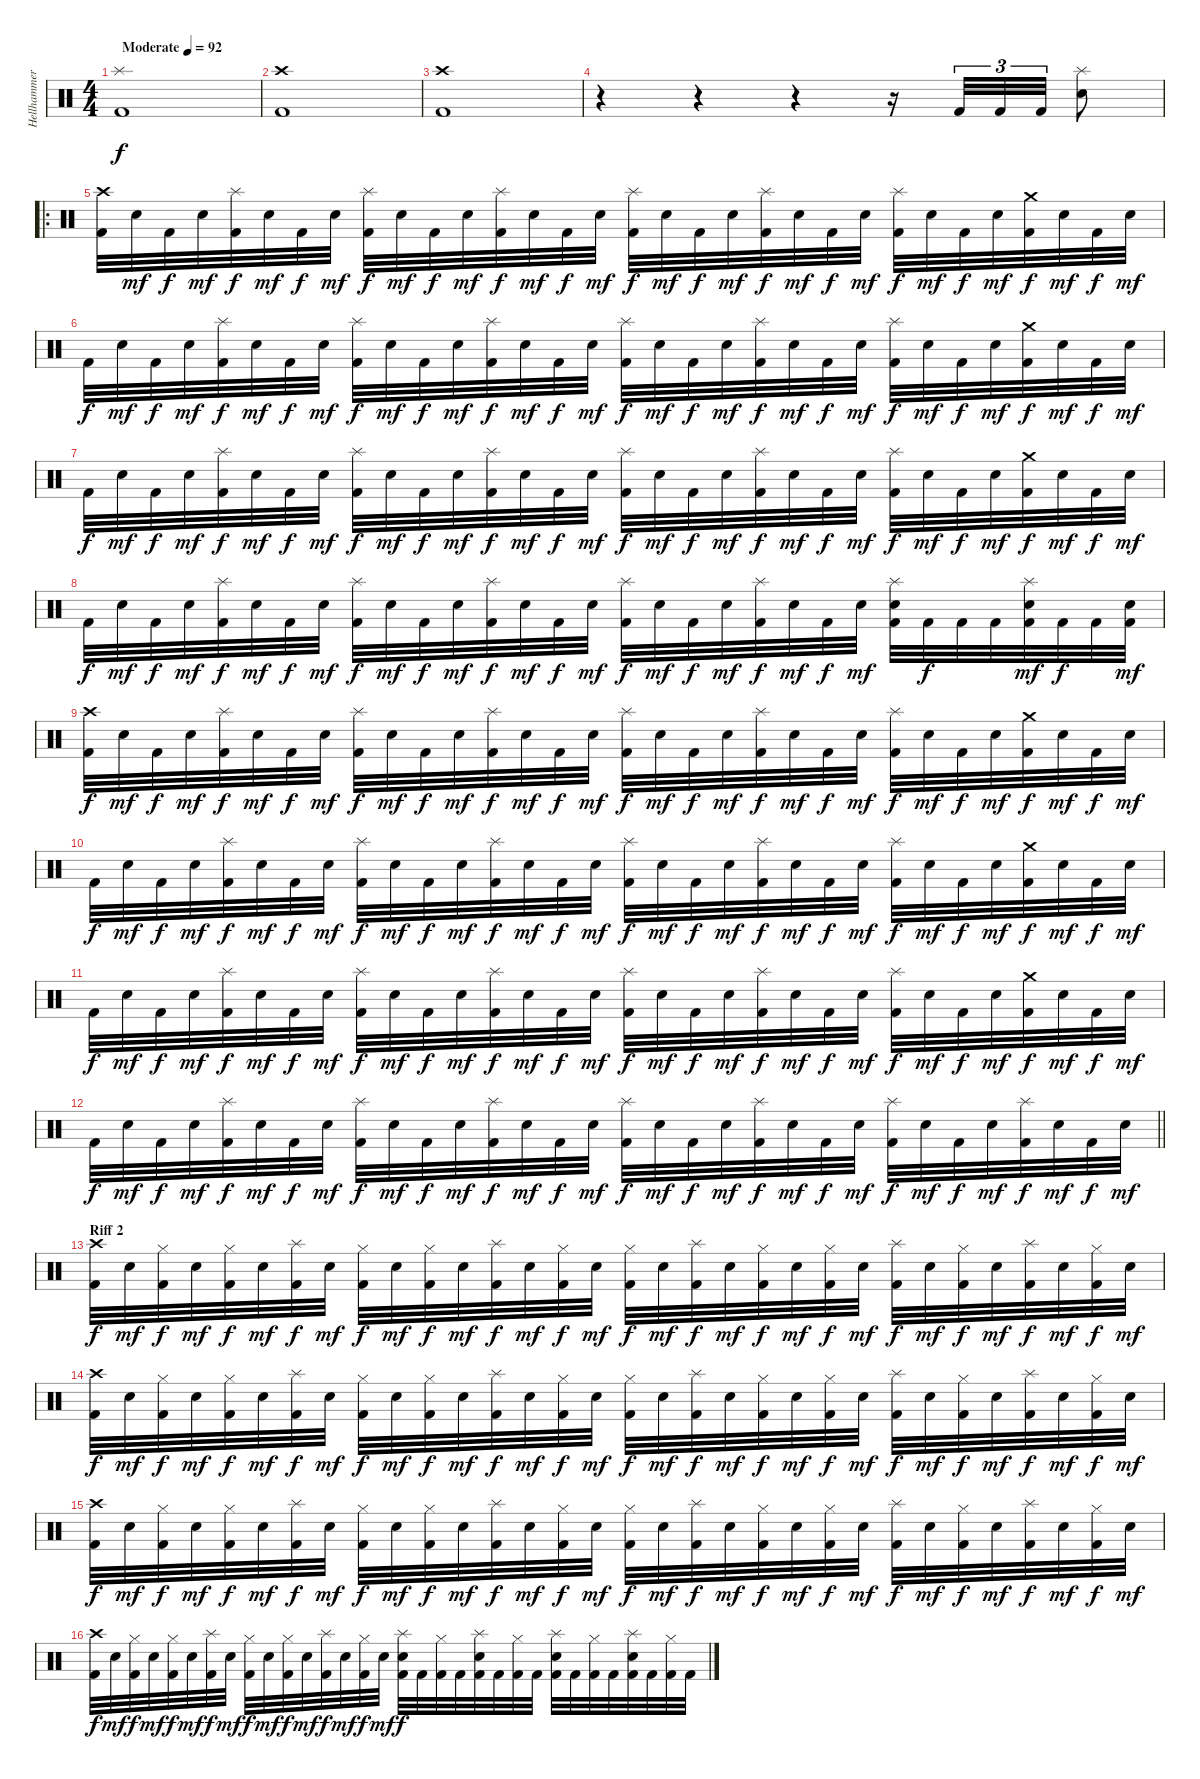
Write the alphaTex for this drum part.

\track ("Hellhammer" "Hellhammer") {instrument percussion}
\staff {score}
\articulation defaults
\ts (4 4)
\tempo (92 "Moderate")
\clef neutral
\ks c
("Splash (hit)" "Kick (hit) 2").1{dy f} |
("Crash high (hit)" "Kick (hit) 2").1 |
("Crash high (hit)" "Kick (hit) 2").1 |
r.4 r.4 r.4 r.16 "Kick (hit) 2".32{tu (3 2)} "Kick (hit) 2".32{tu (3 2)} "Kick (hit) 2".32{tu (3 2)} ("Splash (hit)" "Electric Snare (hit)").8 |
\ro
("Crash high (hit)" "Kick (hit) 2").32 "Electric Snare (hit)".32{dy mf} "Kick (hit) 2".32{dy f} "Electric Snare (hit)".32{dy mf} ("Splash (hit)" "Kick (hit) 2").32{dy f} "Electric Snare (hit)".32{dy mf} "Kick (hit) 2".32{dy f} "Electric Snare (hit)".32{dy mf} ("Splash (hit)" "Kick (hit) 2").32{dy f} "Electric Snare (hit)".32{dy mf} "Kick (hit) 2".32{dy f} "Electric Snare (hit)".32{dy mf} ("Splash (hit)" "Kick (hit) 2").32{dy f} "Electric Snare (hit)".32{dy mf} "Kick (hit) 2".32{dy f} "Electric Snare (hit)".32{dy mf} ("Splash (hit)" "Kick (hit) 2").32{dy f} "Electric Snare (hit)".32{dy mf} "Kick (hit) 2".32{dy f} "Electric Snare (hit)".32{dy mf} ("Splash (hit)" "Kick (hit) 2").32{dy f} "Electric Snare (hit)".32{dy mf} "Kick (hit) 2".32{dy f} "Electric Snare (hit)".32{dy mf} ("Splash (hit)" "Kick (hit) 2").32{dy f} "Electric Snare (hit)".32{dy mf} "Kick (hit) 2".32{dy f} "Electric Snare (hit)".32{dy mf} ("Crash medium (hit)" "Kick (hit) 2").32{dy f} "Electric Snare (hit)".32{dy mf} "Kick (hit) 2".32{dy f} "Electric Snare (hit)".32{dy mf} |
"Kick (hit) 2".32{dy f} "Electric Snare (hit)".32{dy mf} "Kick (hit) 2".32{dy f} "Electric Snare (hit)".32{dy mf} ("Splash (hit)" "Kick (hit) 2").32{dy f} "Electric Snare (hit)".32{dy mf} "Kick (hit) 2".32{dy f} "Electric Snare (hit)".32{dy mf} ("Splash (hit)" "Kick (hit) 2").32{dy f} "Electric Snare (hit)".32{dy mf} "Kick (hit) 2".32{dy f} "Electric Snare (hit)".32{dy mf} ("Splash (hit)" "Kick (hit) 2").32{dy f} "Electric Snare (hit)".32{dy mf} "Kick (hit) 2".32{dy f} "Electric Snare (hit)".32{dy mf} ("Splash (hit)" "Kick (hit) 2").32{dy f} "Electric Snare (hit)".32{dy mf} "Kick (hit) 2".32{dy f} "Electric Snare (hit)".32{dy mf} ("Splash (hit)" "Kick (hit) 2").32{dy f} "Electric Snare (hit)".32{dy mf} "Kick (hit) 2".32{dy f} "Electric Snare (hit)".32{dy mf} ("Splash (hit)" "Kick (hit) 2").32{dy f} "Electric Snare (hit)".32{dy mf} "Kick (hit) 2".32{dy f} "Electric Snare (hit)".32{dy mf} ("Crash medium (hit)" "Kick (hit) 2").32{dy f} "Electric Snare (hit)".32{dy mf} "Kick (hit) 2".32{dy f} "Electric Snare (hit)".32{dy mf} |
"Kick (hit) 2".32{dy f} "Electric Snare (hit)".32{dy mf} "Kick (hit) 2".32{dy f} "Electric Snare (hit)".32{dy mf} ("Splash (hit)" "Kick (hit) 2").32{dy f} "Electric Snare (hit)".32{dy mf} "Kick (hit) 2".32{dy f} "Electric Snare (hit)".32{dy mf} ("Splash (hit)" "Kick (hit) 2").32{dy f} "Electric Snare (hit)".32{dy mf} "Kick (hit) 2".32{dy f} "Electric Snare (hit)".32{dy mf} ("Splash (hit)" "Kick (hit) 2").32{dy f} "Electric Snare (hit)".32{dy mf} "Kick (hit) 2".32{dy f} "Electric Snare (hit)".32{dy mf} ("Splash (hit)" "Kick (hit) 2").32{dy f} "Electric Snare (hit)".32{dy mf} "Kick (hit) 2".32{dy f} "Electric Snare (hit)".32{dy mf} ("Splash (hit)" "Kick (hit) 2").32{dy f} "Electric Snare (hit)".32{dy mf} "Kick (hit) 2".32{dy f} "Electric Snare (hit)".32{dy mf} ("Splash (hit)" "Kick (hit) 2").32{dy f} "Electric Snare (hit)".32{dy mf} "Kick (hit) 2".32{dy f} "Electric Snare (hit)".32{dy mf} ("Crash medium (hit)" "Kick (hit) 2").32{dy f} "Electric Snare (hit)".32{dy mf} "Kick (hit) 2".32{dy f} "Electric Snare (hit)".32{dy mf} |
"Kick (hit) 2".32{dy f} "Electric Snare (hit)".32{dy mf} "Kick (hit) 2".32{dy f} "Electric Snare (hit)".32{dy mf} ("Splash (hit)" "Kick (hit) 2").32{dy f} "Electric Snare (hit)".32{dy mf} "Kick (hit) 2".32{dy f} "Electric Snare (hit)".32{dy mf} ("Splash (hit)" "Kick (hit) 2").32{dy f} "Electric Snare (hit)".32{dy mf} "Kick (hit) 2".32{dy f} "Electric Snare (hit)".32{dy mf} ("Splash (hit)" "Kick (hit) 2").32{dy f} "Electric Snare (hit)".32{dy mf} "Kick (hit) 2".32{dy f} "Electric Snare (hit)".32{dy mf} ("Splash (hit)" "Kick (hit) 2").32{dy f} "Electric Snare (hit)".32{dy mf} "Kick (hit) 2".32{dy f} "Electric Snare (hit)".32{dy mf} ("Splash (hit)" "Kick (hit) 2").32{dy f} "Electric Snare (hit)".32{dy mf} "Kick (hit) 2".32{dy f} "Electric Snare (hit)".32{dy mf} ("Splash (hit)" "Electric Snare (hit)" "Kick (hit) 2").32 "Kick (hit) 2".32{dy f} "Kick (hit) 2".32 "Kick (hit) 2".32 ("Splash (hit)" "Electric Snare (hit)" "Kick (hit) 2").32{dy mf} "Kick (hit) 2".32{dy f} "Kick (hit) 2".32 ("Electric Snare (hit)" "Kick (hit) 2").32{dy mf} |
("Crash high (hit)" "Kick (hit) 2").32{dy f} "Electric Snare (hit)".32{dy mf} "Kick (hit) 2".32{dy f} "Electric Snare (hit)".32{dy mf} ("Splash (hit)" "Kick (hit) 2").32{dy f} "Electric Snare (hit)".32{dy mf} "Kick (hit) 2".32{dy f} "Electric Snare (hit)".32{dy mf} ("Splash (hit)" "Kick (hit) 2").32{dy f} "Electric Snare (hit)".32{dy mf} "Kick (hit) 2".32{dy f} "Electric Snare (hit)".32{dy mf} ("Splash (hit)" "Kick (hit) 2").32{dy f} "Electric Snare (hit)".32{dy mf} "Kick (hit) 2".32{dy f} "Electric Snare (hit)".32{dy mf} ("Splash (hit)" "Kick (hit) 2").32{dy f} "Electric Snare (hit)".32{dy mf} "Kick (hit) 2".32{dy f} "Electric Snare (hit)".32{dy mf} ("Splash (hit)" "Kick (hit) 2").32{dy f} "Electric Snare (hit)".32{dy mf} "Kick (hit) 2".32{dy f} "Electric Snare (hit)".32{dy mf} ("Splash (hit)" "Kick (hit) 2").32{dy f} "Electric Snare (hit)".32{dy mf} "Kick (hit) 2".32{dy f} "Electric Snare (hit)".32{dy mf} ("Crash medium (hit)" "Kick (hit) 2").32{dy f} "Electric Snare (hit)".32{dy mf} "Kick (hit) 2".32{dy f} "Electric Snare (hit)".32{dy mf} |
"Kick (hit) 2".32{dy f} "Electric Snare (hit)".32{dy mf} "Kick (hit) 2".32{dy f} "Electric Snare (hit)".32{dy mf} ("Splash (hit)" "Kick (hit) 2").32{dy f} "Electric Snare (hit)".32{dy mf} "Kick (hit) 2".32{dy f} "Electric Snare (hit)".32{dy mf} ("Splash (hit)" "Kick (hit) 2").32{dy f} "Electric Snare (hit)".32{dy mf} "Kick (hit) 2".32{dy f} "Electric Snare (hit)".32{dy mf} ("Splash (hit)" "Kick (hit) 2").32{dy f} "Electric Snare (hit)".32{dy mf} "Kick (hit) 2".32{dy f} "Electric Snare (hit)".32{dy mf} ("Splash (hit)" "Kick (hit) 2").32{dy f} "Electric Snare (hit)".32{dy mf} "Kick (hit) 2".32{dy f} "Electric Snare (hit)".32{dy mf} ("Splash (hit)" "Kick (hit) 2").32{dy f} "Electric Snare (hit)".32{dy mf} "Kick (hit) 2".32{dy f} "Electric Snare (hit)".32{dy mf} ("Splash (hit)" "Kick (hit) 2").32{dy f} "Electric Snare (hit)".32{dy mf} "Kick (hit) 2".32{dy f} "Electric Snare (hit)".32{dy mf} ("Crash medium (hit)" "Kick (hit) 2").32{dy f} "Electric Snare (hit)".32{dy mf} "Kick (hit) 2".32{dy f} "Electric Snare (hit)".32{dy mf} |
"Kick (hit) 2".32{dy f} "Electric Snare (hit)".32{dy mf} "Kick (hit) 2".32{dy f} "Electric Snare (hit)".32{dy mf} ("Splash (hit)" "Kick (hit) 2").32{dy f} "Electric Snare (hit)".32{dy mf} "Kick (hit) 2".32{dy f} "Electric Snare (hit)".32{dy mf} ("Splash (hit)" "Kick (hit) 2").32{dy f} "Electric Snare (hit)".32{dy mf} "Kick (hit) 2".32{dy f} "Electric Snare (hit)".32{dy mf} ("Splash (hit)" "Kick (hit) 2").32{dy f} "Electric Snare (hit)".32{dy mf} "Kick (hit) 2".32{dy f} "Electric Snare (hit)".32{dy mf} ("Splash (hit)" "Kick (hit) 2").32{dy f} "Electric Snare (hit)".32{dy mf} "Kick (hit) 2".32{dy f} "Electric Snare (hit)".32{dy mf} ("Splash (hit)" "Kick (hit) 2").32{dy f} "Electric Snare (hit)".32{dy mf} "Kick (hit) 2".32{dy f} "Electric Snare (hit)".32{dy mf} ("Splash (hit)" "Kick (hit) 2").32{dy f} "Electric Snare (hit)".32{dy mf} "Kick (hit) 2".32{dy f} "Electric Snare (hit)".32{dy mf} ("Crash medium (hit)" "Kick (hit) 2").32{dy f} "Electric Snare (hit)".32{dy mf} "Kick (hit) 2".32{dy f} "Electric Snare (hit)".32{dy mf} |
\barLineRight lightlight "Kick (hit) 2".32{dy f} "Electric Snare (hit)".32{dy mf} "Kick (hit) 2".32{dy f} "Electric Snare (hit)".32{dy mf}
("Splash (hit)" "Kick (hit) 2").32{dy f} "Electric Snare (hit)".32{dy mf} "Kick (hit) 2".32{dy f} "Electric Snare (hit)".32{dy mf} ("Splash (hit)" "Kick (hit) 2").32{dy f} "Electric Snare (hit)".32{dy mf} "Kick (hit) 2".32{dy f} "Electric Snare (hit)".32{dy mf} ("Splash (hit)" "Kick (hit) 2").32{dy f} "Electric Snare (hit)".32{dy mf} "Kick (hit) 2".32{dy f} "Electric Snare (hit)".32{dy mf} ("Splash (hit)" "Kick (hit) 2").32{dy f} "Electric Snare (hit)".32{dy mf} "Kick (hit) 2".32{dy f} "Electric Snare (hit)".32{dy mf} ("Splash (hit)" "Kick (hit) 2").32{dy f} "Electric Snare (hit)".32{dy mf} "Kick (hit) 2".32{dy f} "Electric Snare (hit)".32{dy mf} ("Splash (hit)" "Kick (hit) 2").32{dy f} "Electric Snare (hit)".32{dy mf} "Kick (hit) 2".32{dy f} "Electric Snare (hit)".32{dy mf} ("Splash (hit)" "Kick (hit) 2").32{dy f} "Electric Snare (hit)".32{dy mf} "Kick (hit) 2".32{dy f} "Electric Snare (hit)".32{dy mf} |
\section ("" "Riff 2")
("Crash high (hit)" "Kick (hit) 2").32{dy f} "Electric Snare (hit)".32{dy mf} ("Hi-Hat (closed)" "Kick (hit) 2").32{dy f} "Electric Snare (hit)".32{dy mf} ("Hi-Hat (closed)" "Kick (hit) 2").32{dy f} "Electric Snare (hit)".32{dy mf} ("Splash (hit)" "Kick (hit) 2").32{dy f} "Electric Snare (hit)".32{dy mf} ("Hi-Hat (closed)" "Kick (hit) 2").32{dy f} "Electric Snare (hit)".32{dy mf} ("Hi-Hat (closed)" "Kick (hit) 2").32{dy f} "Electric Snare (hit)".32{dy mf} ("Splash (hit)" "Kick (hit) 2").32{dy f} "Electric Snare (hit)".32{dy mf} ("Hi-Hat (closed)" "Kick (hit) 2").32{dy f} "Electric Snare (hit)".32{dy mf} ("Hi-Hat (closed)" "Kick (hit) 2").32{dy f} "Electric Snare (hit)".32{dy mf} ("Splash (hit)" "Kick (hit) 2").32{dy f} "Electric Snare (hit)".32{dy mf} ("Hi-Hat (closed)" "Kick (hit) 2").32{dy f} "Electric Snare (hit)".32{dy mf} ("Hi-Hat (closed)" "Kick (hit) 2").32{dy f} "Electric Snare (hit)".32{dy mf} ("Splash (hit)" "Kick (hit) 2").32{dy f} "Electric Snare (hit)".32{dy mf} ("Hi-Hat (closed)" "Kick (hit) 2").32{dy f} "Electric Snare (hit)".32{dy mf} ("Splash (hit)" "Kick (hit) 2").32{dy f} "Electric Snare (hit)".32{dy mf} ("Hi-Hat (closed)" "Kick (hit) 2").32{dy f} "Electric Snare (hit)".32{dy mf} |
("Crash high (hit)" "Kick (hit) 2").32{dy f} "Electric Snare (hit)".32{dy mf} ("Hi-Hat (closed)" "Kick (hit) 2").32{dy f} "Electric Snare (hit)".32{dy mf} ("Hi-Hat (closed)" "Kick (hit) 2").32{dy f} "Electric Snare (hit)".32{dy mf} ("Splash (hit)" "Kick (hit) 2").32{dy f} "Electric Snare (hit)".32{dy mf} ("Hi-Hat (closed)" "Kick (hit) 2").32{dy f} "Electric Snare (hit)".32{dy mf} ("Hi-Hat (closed)" "Kick (hit) 2").32{dy f} "Electric Snare (hit)".32{dy mf} ("Splash (hit)" "Kick (hit) 2").32{dy f} "Electric Snare (hit)".32{dy mf} ("Hi-Hat (closed)" "Kick (hit) 2").32{dy f} "Electric Snare (hit)".32{dy mf} ("Hi-Hat (closed)" "Kick (hit) 2").32{dy f} "Electric Snare (hit)".32{dy mf} ("Splash (hit)" "Kick (hit) 2").32{dy f} "Electric Snare (hit)".32{dy mf} ("Hi-Hat (closed)" "Kick (hit) 2").32{dy f} "Electric Snare (hit)".32{dy mf} ("Hi-Hat (closed)" "Kick (hit) 2").32{dy f} "Electric Snare (hit)".32{dy mf} ("Splash (hit)" "Kick (hit) 2").32{dy f} "Electric Snare (hit)".32{dy mf} ("Hi-Hat (closed)" "Kick (hit) 2").32{dy f} "Electric Snare (hit)".32{dy mf} ("Splash (hit)" "Kick (hit) 2").32{dy f} "Electric Snare (hit)".32{dy mf} ("Hi-Hat (closed)" "Kick (hit) 2").32{dy f} "Electric Snare (hit)".32{dy mf} |
("Crash high (hit)" "Kick (hit) 2").32{dy f} "Electric Snare (hit)".32{dy mf} ("Hi-Hat (closed)" "Kick (hit) 2").32{dy f} "Electric Snare (hit)".32{dy mf} ("Hi-Hat (closed)" "Kick (hit) 2").32{dy f} "Electric Snare (hit)".32{dy mf} ("Splash (hit)" "Kick (hit) 2").32{dy f} "Electric Snare (hit)".32{dy mf} ("Hi-Hat (closed)" "Kick (hit) 2").32{dy f} "Electric Snare (hit)".32{dy mf} ("Hi-Hat (closed)" "Kick (hit) 2").32{dy f} "Electric Snare (hit)".32{dy mf} ("Splash (hit)" "Kick (hit) 2").32{dy f} "Electric Snare (hit)".32{dy mf} ("Hi-Hat (closed)" "Kick (hit) 2").32{dy f} "Electric Snare (hit)".32{dy mf} ("Hi-Hat (closed)" "Kick (hit) 2").32{dy f} "Electric Snare (hit)".32{dy mf} ("Splash (hit)" "Kick (hit) 2").32{dy f} "Electric Snare (hit)".32{dy mf} ("Hi-Hat (closed)" "Kick (hit) 2").32{dy f} "Electric Snare (hit)".32{dy mf} ("Hi-Hat (closed)" "Kick (hit) 2").32{dy f} "Electric Snare (hit)".32{dy mf} ("Splash (hit)" "Kick (hit) 2").32{dy f} "Electric Snare (hit)".32{dy mf} ("Hi-Hat (closed)" "Kick (hit) 2").32{dy f} "Electric Snare (hit)".32{dy mf} ("Splash (hit)" "Kick (hit) 2").32{dy f} "Electric Snare (hit)".32{dy mf} ("Hi-Hat (closed)" "Kick (hit) 2").32{dy f} "Electric Snare (hit)".32{dy mf} |
("Crash high (hit)" "Kick (hit) 2").32{dy f} "Electric Snare (hit)".32{dy mf} ("Hi-Hat (closed)" "Kick (hit) 2").32{dy f} "Electric Snare (hit)".32{dy mf} ("Hi-Hat (closed)" "Kick (hit) 2").32{dy f} "Electric Snare (hit)".32{dy mf} ("Splash (hit)" "Kick (hit) 2").32{dy f} "Electric Snare (hit)".32{dy mf} ("Hi-Hat (closed)" "Kick (hit) 2").32{dy f} "Electric Snare (hit)".32{dy mf} ("Hi-Hat (closed)" "Kick (hit) 2").32{dy f} "Electric Snare (hit)".32{dy mf} ("Splash (hit)" "Kick (hit) 2").32{dy f} "Electric Snare (hit)".32{dy mf} ("Hi-Hat (closed)" "Kick (hit) 2").32{dy f} "Electric Snare (hit)".32{dy mf} ("Splash (hit)" "Electric Snare (hit)" "Kick (hit) 2").32{dy f} "Kick (hit) 2".32 ("Hi-Hat (closed)" "Kick (hit) 2").32 "Kick (hit) 2".32 ("Splash (hit)" "Electric Snare (hit)" "Kick (hit) 2").32 "Kick (hit) 2".32 ("Hi-Hat (closed)" "Kick (hit) 2").32 "Kick (hit) 2".32 ("Splash (hit)" "Electric Snare (hit)" "Kick (hit) 2").32 "Kick (hit) 2".32 ("Hi-Hat (closed)" "Kick (hit) 2").32 "Kick (hit) 2".32 ("Splash (hit)" "Electric Snare (hit)" "Kick (hit) 2").32 "Kick (hit) 2".32 ("Hi-Hat (closed)" "Kick (hit) 2").32 "Kick (hit) 2".32
